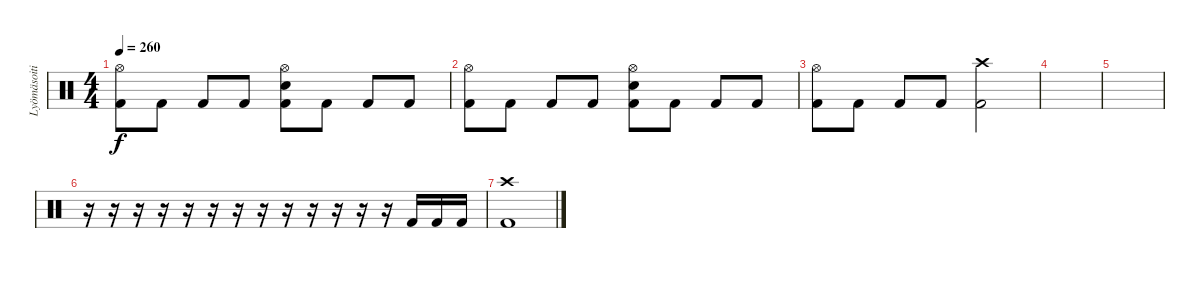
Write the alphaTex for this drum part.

\track ("Lyömäsoitin" "Lyömäsoiti") {instrument percussion}
\staff {score}
\articulation defaults
\ts (4 4)
\tempo 260
\clef neutral
\ks c
("Hi-Hat (open)" "Kick (hit) 2").8{dy f} "Kick (hit) 2".8 "Kick (hit) 2".8 "Kick (hit) 2".8 ("Hi-Hat (open)" "Electric Snare (hit)" "Kick (hit) 2").8 "Kick (hit) 2".8 "Kick (hit) 2".8 "Kick (hit) 2".8 |
("Hi-Hat (open)" "Kick (hit) 2").8 "Kick (hit) 2".8 "Kick (hit) 2".8 "Kick (hit) 2".8 ("Hi-Hat (open)" "Electric Snare (hit)" "Kick (hit) 2").8 "Kick (hit) 2".8 "Kick (hit) 2".8 "Kick (hit) 2".8 |
("Hi-Hat (open)" "Kick (hit) 2").8 "Kick (hit) 2".8 "Kick (hit) 2".8 "Kick (hit) 2".8 ("Crash high (hit)" "Kick (hit) 2").2 |
|
|
r.16 r.16 r.16 r.16 r.16 r.16 r.16 r.16 r.16 r.16 r.16 r.16 r.16 "Kick (hit) 2".16 "Kick (hit) 2".16 "Kick (hit) 2".16 |
("Crash high (hit)" "Kick (hit) 2").1
